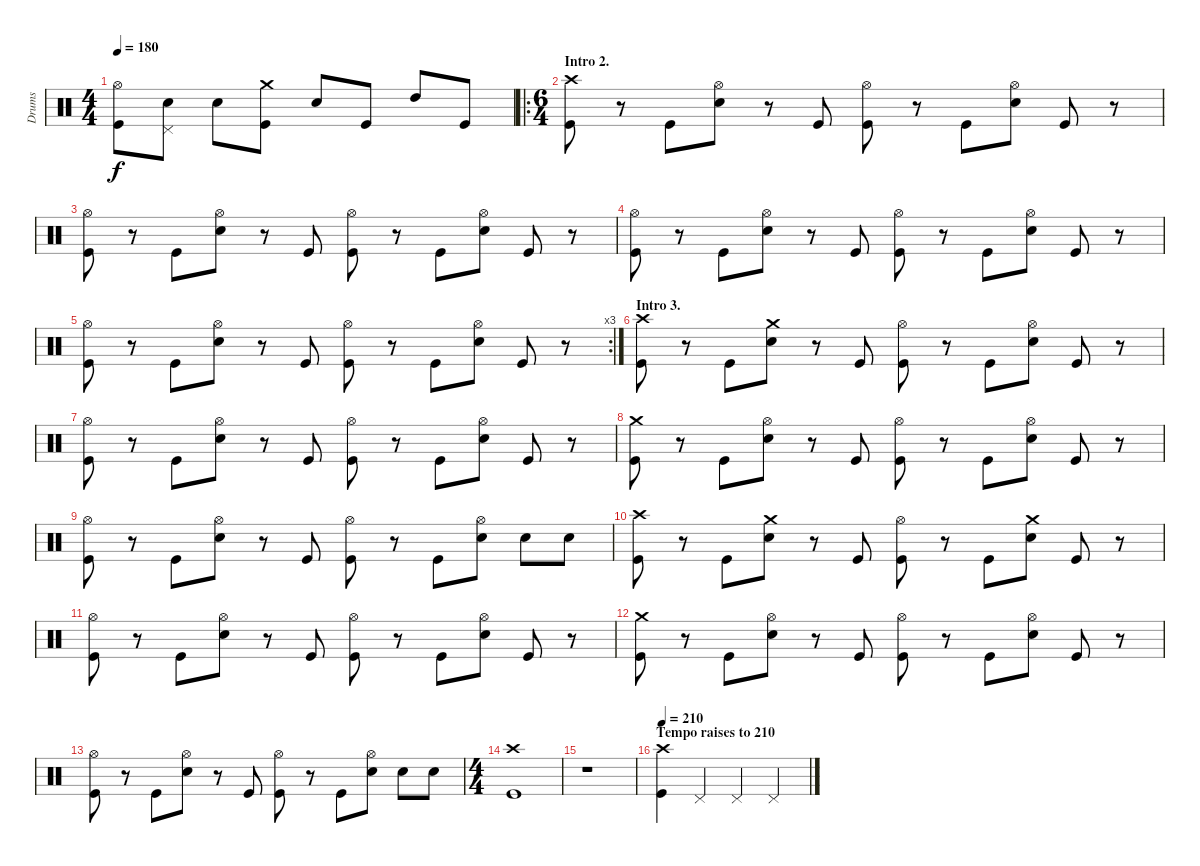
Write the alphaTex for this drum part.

\track ("Drums" "Drums") {instrument percussion}
\staff {score}
\articulation defaults
\ts (4 4)
\tempo 180
\clef neutral
\ks c
("Hi-Hat (open)" "Kick (hit)").8{dy f} ("Pedal Hi-Hat (hit)" "Electric Snare (hit)").8 "Electric Snare (hit)".8 ("Crash medium (hit)" "Kick (hit)").8 "Electric Snare (hit)".8 "Kick (hit)".8 "High Tom (hit)".8 "Kick (hit)".8 |
\ro
\ts (6 4)
\section ("" "Intro 2.")
("Crash high (hit)" "Kick (hit)").8 r.8 "Kick (hit)".8 ("Hi-Hat (open)" "Electric Snare (hit)").8 r.8 "Kick (hit)".8 ("Hi-Hat (open)" "Kick (hit)").8 r.8 "Kick (hit)".8 ("Hi-Hat (open)" "Electric Snare (hit)").8 "Kick (hit)".8 r.8 |
("Hi-Hat (open)" "Kick (hit)").8 r.8 "Kick (hit)".8 ("Hi-Hat (open)" "Electric Snare (hit)").8 r.8 "Kick (hit)".8 ("Hi-Hat (open)" "Kick (hit)").8 r.8 "Kick (hit)".8 ("Hi-Hat (open)" "Electric Snare (hit)").8 "Kick (hit)".8 r.8 |
("Hi-Hat (open)" "Kick (hit)").8 r.8 "Kick (hit)".8 ("Hi-Hat (open)" "Electric Snare (hit)").8 r.8 "Kick (hit)".8 ("Hi-Hat (open)" "Kick (hit)").8 r.8 "Kick (hit)".8 ("Hi-Hat (open)" "Electric Snare (hit)").8 "Kick (hit)".8 r.8 |
\rc 3
("Hi-Hat (open)" "Kick (hit)").8 r.8 "Kick (hit)".8 ("Hi-Hat (open)" "Electric Snare (hit)").8 r.8 "Kick (hit)".8 ("Hi-Hat (open)" "Kick (hit)").8 r.8 "Kick (hit)".8 ("Hi-Hat (open)" "Electric Snare (hit)").8 "Kick (hit)".8 r.8 |
\section ("" "Intro 3.")
("Crash high (hit)" "Kick (hit)").8 r.8 "Kick (hit)".8 ("Crash medium (hit)" "Electric Snare (hit)").8 r.8 "Kick (hit)".8 ("Hi-Hat (open)" "Kick (hit)").8 r.8 "Kick (hit)".8 ("Hi-Hat (open)" "Electric Snare (hit)").8 "Kick (hit)".8 r.8 |
("Hi-Hat (open)" "Kick (hit)").8 r.8 "Kick (hit)".8 ("Hi-Hat (open)" "Electric Snare (hit)").8 r.8 "Kick (hit)".8 ("Hi-Hat (open)" "Kick (hit)").8 r.8 "Kick (hit)".8 ("Hi-Hat (open)" "Electric Snare (hit)").8 "Kick (hit)".8 r.8 |
("Crash medium (hit)" "Kick (hit)").8 r.8 "Kick (hit)".8 ("Hi-Hat (open)" "Electric Snare (hit)").8 r.8 "Kick (hit)".8 ("Hi-Hat (open)" "Kick (hit)").8 r.8 "Kick (hit)".8 ("Hi-Hat (open)" "Electric Snare (hit)").8 "Kick (hit)".8 r.8 |
("Hi-Hat (open)" "Kick (hit)").8 r.8 "Kick (hit)".8 ("Hi-Hat (open)" "Electric Snare (hit)").8 r.8 "Kick (hit)".8 ("Hi-Hat (open)" "Kick (hit)").8 r.8 "Kick (hit)".8 ("Hi-Hat (open)" "Electric Snare (hit)").8 "Electric Snare (hit)".8 "Electric Snare (hit)".8 |
("Crash high (hit)" "Kick (hit)").8 r.8 "Kick (hit)".8 ("Crash medium (hit)" "Electric Snare (hit)").8 r.8 "Kick (hit)".8 ("Hi-Hat (open)" "Kick (hit)").8 r.8 "Kick (hit)".8 ("Crash medium (hit)" "Electric Snare (hit)").8 "Kick (hit)".8 r.8 |
("Hi-Hat (open)" "Kick (hit)").8 r.8 "Kick (hit)".8 ("Hi-Hat (open)" "Electric Snare (hit)").8 r.8 "Kick (hit)".8 ("Hi-Hat (open)" "Kick (hit)").8 r.8 "Kick (hit)".8 ("Hi-Hat (open)" "Electric Snare (hit)").8 "Kick (hit)".8 r.8 |
("Crash medium (hit)" "Kick (hit)").8 r.8 "Kick (hit)".8 ("Hi-Hat (open)" "Electric Snare (hit)").8 r.8 "Kick (hit)".8 ("Hi-Hat (open)" "Kick (hit)").8 r.8 "Kick (hit)".8 ("Hi-Hat (open)" "Electric Snare (hit)").8 "Kick (hit)".8 r.8 |
("Hi-Hat (open)" "Kick (hit)").8 r.8 "Kick (hit)".8 ("Hi-Hat (open)" "Electric Snare (hit)").8 r.8 "Kick (hit)".8 ("Hi-Hat (open)" "Kick (hit)").8 r.8 "Kick (hit)".8 ("Hi-Hat (open)" "Electric Snare (hit)").8 "Electric Snare (hit)".8 "Electric Snare (hit)".8 |
\ts (4 4)
("Crash high (hit)" "Kick (hit)").1 |
r.1 |
\section ("" "Tempo raises to 210")
\tempo 210
("Crash high (hit)" "Kick (hit)").4 "Pedal Hi-Hat (hit)".4 "Pedal Hi-Hat (hit)".4 "Pedal Hi-Hat (hit)".4
